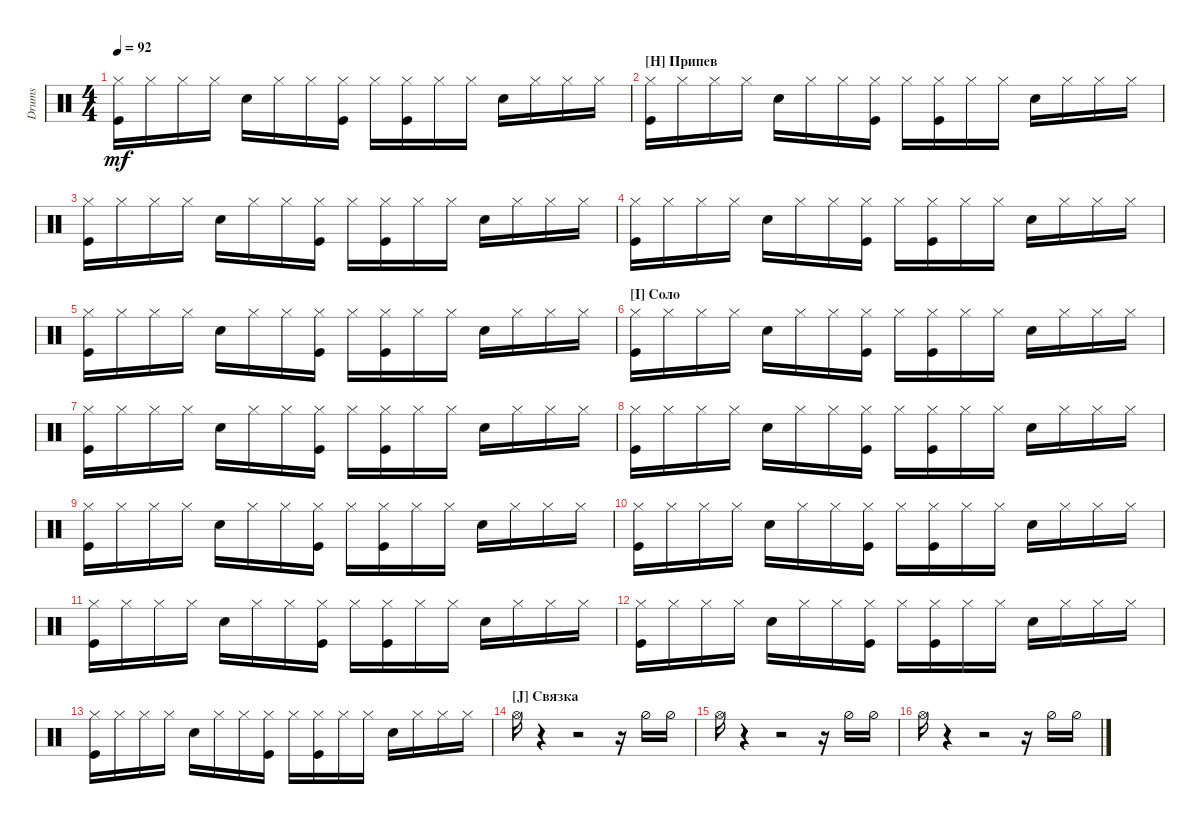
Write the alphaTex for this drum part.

\track ("Drumkit" "Drums") {instrument percussion}
\staff {score}
\articulation defaults
\ts (4 4)
\tempo 92
\clef neutral
\ks c
("Kick (hit)" "Hi-Hat (closed)").16{dy mf} "Hi-Hat (closed)".16 "Hi-Hat (closed)".16 "Hi-Hat (closed)".16 "Snare (hit) 2".16 "Hi-Hat (closed)".16 "Hi-Hat (closed)".16 ("Hi-Hat (closed)" "Kick (hit)").16 "Hi-Hat (closed)".16 ("Hi-Hat (closed)" "Kick (hit)").16 "Hi-Hat (closed)".16 "Hi-Hat (closed)".16 "Snare (hit) 2".16 "Hi-Hat (closed)".16 "Hi-Hat (closed)".16 "Hi-Hat (closed)".16 |
\section ("H" "Припев")
("Kick (hit)" "Hi-Hat (closed)").16 "Hi-Hat (closed)".16 "Hi-Hat (closed)".16 "Hi-Hat (closed)".16 "Snare (hit) 2".16 "Hi-Hat (closed)".16 "Hi-Hat (closed)".16 ("Hi-Hat (closed)" "Kick (hit)").16 "Hi-Hat (closed)".16 ("Hi-Hat (closed)" "Kick (hit)").16 "Hi-Hat (closed)".16 "Hi-Hat (closed)".16 "Snare (hit) 2".16 "Hi-Hat (closed)".16 "Hi-Hat (closed)".16 "Hi-Hat (closed)".16 |
("Kick (hit)" "Hi-Hat (closed)").16 "Hi-Hat (closed)".16 "Hi-Hat (closed)".16 "Hi-Hat (closed)".16 "Snare (hit) 2".16 "Hi-Hat (closed)".16 "Hi-Hat (closed)".16 ("Hi-Hat (closed)" "Kick (hit)").16 "Hi-Hat (closed)".16 ("Hi-Hat (closed)" "Kick (hit)").16 "Hi-Hat (closed)".16 "Hi-Hat (closed)".16 "Snare (hit) 2".16 "Hi-Hat (closed)".16 "Hi-Hat (closed)".16 "Hi-Hat (closed)".16 |
("Kick (hit)" "Hi-Hat (closed)").16 "Hi-Hat (closed)".16 "Hi-Hat (closed)".16 "Hi-Hat (closed)".16 "Snare (hit) 2".16 "Hi-Hat (closed)".16 "Hi-Hat (closed)".16 ("Hi-Hat (closed)" "Kick (hit)").16 "Hi-Hat (closed)".16 ("Hi-Hat (closed)" "Kick (hit)").16 "Hi-Hat (closed)".16 "Hi-Hat (closed)".16 "Snare (hit) 2".16 "Hi-Hat (closed)".16 "Hi-Hat (closed)".16 "Hi-Hat (closed)".16 |
("Kick (hit)" "Hi-Hat (closed)").16 "Hi-Hat (closed)".16 "Hi-Hat (closed)".16 "Hi-Hat (closed)".16 "Snare (hit) 2".16 "Hi-Hat (closed)".16 "Hi-Hat (closed)".16 ("Hi-Hat (closed)" "Kick (hit)").16 "Hi-Hat (closed)".16 ("Hi-Hat (closed)" "Kick (hit)").16 "Hi-Hat (closed)".16 "Hi-Hat (closed)".16 "Snare (hit) 2".16 "Hi-Hat (closed)".16 "Hi-Hat (closed)".16 "Hi-Hat (closed)".16 |
\section ("I" "Соло")
("Kick (hit)" "Hi-Hat (closed)").16 "Hi-Hat (closed)".16 "Hi-Hat (closed)".16 "Hi-Hat (closed)".16 "Snare (hit) 2".16 "Hi-Hat (closed)".16 "Hi-Hat (closed)".16 ("Hi-Hat (closed)" "Kick (hit)").16 "Hi-Hat (closed)".16 ("Hi-Hat (closed)" "Kick (hit)").16 "Hi-Hat (closed)".16 "Hi-Hat (closed)".16 "Snare (hit) 2".16 "Hi-Hat (closed)".16 "Hi-Hat (closed)".16 "Hi-Hat (closed)".16 |
("Kick (hit)" "Hi-Hat (closed)").16 "Hi-Hat (closed)".16 "Hi-Hat (closed)".16 "Hi-Hat (closed)".16 "Snare (hit) 2".16 "Hi-Hat (closed)".16 "Hi-Hat (closed)".16 ("Hi-Hat (closed)" "Kick (hit)").16 "Hi-Hat (closed)".16 ("Hi-Hat (closed)" "Kick (hit)").16 "Hi-Hat (closed)".16 "Hi-Hat (closed)".16 "Snare (hit) 2".16 "Hi-Hat (closed)".16 "Hi-Hat (closed)".16 "Hi-Hat (closed)".16 |
("Kick (hit)" "Hi-Hat (closed)").16 "Hi-Hat (closed)".16 "Hi-Hat (closed)".16 "Hi-Hat (closed)".16 "Snare (hit) 2".16 "Hi-Hat (closed)".16 "Hi-Hat (closed)".16 ("Hi-Hat (closed)" "Kick (hit)").16 "Hi-Hat (closed)".16 ("Hi-Hat (closed)" "Kick (hit)").16 "Hi-Hat (closed)".16 "Hi-Hat (closed)".16 "Snare (hit) 2".16 "Hi-Hat (closed)".16 "Hi-Hat (closed)".16 "Hi-Hat (closed)".16 |
("Kick (hit)" "Hi-Hat (closed)").16 "Hi-Hat (closed)".16 "Hi-Hat (closed)".16 "Hi-Hat (closed)".16 "Snare (hit) 2".16 "Hi-Hat (closed)".16 "Hi-Hat (closed)".16 ("Hi-Hat (closed)" "Kick (hit)").16 "Hi-Hat (closed)".16 ("Hi-Hat (closed)" "Kick (hit)").16 "Hi-Hat (closed)".16 "Hi-Hat (closed)".16 "Snare (hit) 2".16 "Hi-Hat (closed)".16 "Hi-Hat (closed)".16 "Hi-Hat (closed)".16 |
("Kick (hit)" "Hi-Hat (closed)").16 "Hi-Hat (closed)".16 "Hi-Hat (closed)".16 "Hi-Hat (closed)".16 "Snare (hit) 2".16 "Hi-Hat (closed)".16 "Hi-Hat (closed)".16 ("Hi-Hat (closed)" "Kick (hit)").16 "Hi-Hat (closed)".16 ("Hi-Hat (closed)" "Kick (hit)").16 "Hi-Hat (closed)".16 "Hi-Hat (closed)".16 "Snare (hit) 2".16 "Hi-Hat (closed)".16 "Hi-Hat (closed)".16 "Hi-Hat (closed)".16 |
("Kick (hit)" "Hi-Hat (closed)").16 "Hi-Hat (closed)".16 "Hi-Hat (closed)".16 "Hi-Hat (closed)".16 "Snare (hit) 2".16 "Hi-Hat (closed)".16 "Hi-Hat (closed)".16 ("Hi-Hat (closed)" "Kick (hit)").16 "Hi-Hat (closed)".16 ("Hi-Hat (closed)" "Kick (hit)").16 "Hi-Hat (closed)".16 "Hi-Hat (closed)".16 "Snare (hit) 2".16 "Hi-Hat (closed)".16 "Hi-Hat (closed)".16 "Hi-Hat (closed)".16 |
("Kick (hit)" "Hi-Hat (closed)").16 "Hi-Hat (closed)".16 "Hi-Hat (closed)".16 "Hi-Hat (closed)".16 "Snare (hit) 2".16 "Hi-Hat (closed)".16 "Hi-Hat (closed)".16 ("Hi-Hat (closed)" "Kick (hit)").16 "Hi-Hat (closed)".16 ("Hi-Hat (closed)" "Kick (hit)").16 "Hi-Hat (closed)".16 "Hi-Hat (closed)".16 "Snare (hit) 2".16 "Hi-Hat (closed)".16 "Hi-Hat (closed)".16 "Hi-Hat (closed)".16 |
("Kick (hit)" "Hi-Hat (closed)").16 "Hi-Hat (closed)".16 "Hi-Hat (closed)".16 "Hi-Hat (closed)".16 "Snare (hit) 2".16 "Hi-Hat (closed)".16 "Hi-Hat (closed)".16 ("Hi-Hat (closed)" "Kick (hit)").16 "Hi-Hat (closed)".16 ("Hi-Hat (closed)" "Kick (hit)").16 "Hi-Hat (closed)".16 "Hi-Hat (closed)".16 "Snare (hit) 2".16 "Hi-Hat (closed)".16 "Hi-Hat (closed)".16 "Hi-Hat (closed)".16 |
\section ("J" "Связка")
"Hi-Hat (open)".16 r.4 r.2 r.16 "Hi-Hat (half)".16 "Hi-Hat (half)".16 |
"Hi-Hat (open)".16 r.4 r.2 r.16 "Hi-Hat (half)".16 "Hi-Hat (half)".16 |
"Hi-Hat (open)".16 r.4 r.2 r.16 "Hi-Hat (half)".16 "Hi-Hat (half)".16
